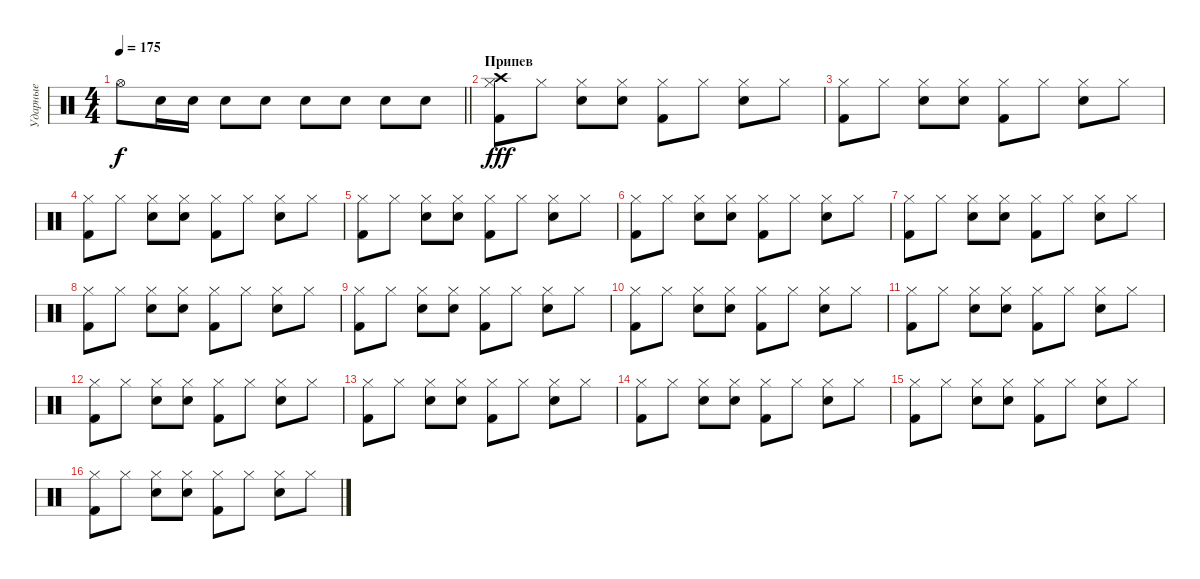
\track ("Ударные" "Ударные") {instrument percussion}
\staff {score}
\articulation defaults
\ts (4 4)
\tempo 175
\clef neutral
\barLineRight lightlight
\ks c "Hi-Hat (open)".8{dy f} "Snare (hit) 2".16 "Snare (hit) 2".16 "Snare (hit) 2".8 "Snare (hit) 2".8 "Snare (hit) 2".8 "Snare (hit) 2".8 "Snare (hit) 2".8 "Snare (hit) 2".8
|
\section ("" "Припев")
("Crash high (hit)" "Hi-Hat (closed)" "Kick (hit) 2").8{dy fff} "Hi-Hat (closed)".8 ("Hi-Hat (closed)" "Snare (hit) 2").8 ("Hi-Hat (closed)" "Snare (hit) 2").8 ("Hi-Hat (closed)" "Kick (hit) 2").8 "Hi-Hat (closed)".8 ("Hi-Hat (closed)" "Snare (hit) 2").8 "Hi-Hat (closed)".8 |
("Hi-Hat (closed)" "Kick (hit) 2").8 "Hi-Hat (closed)".8 ("Hi-Hat (closed)" "Snare (hit) 2").8 ("Hi-Hat (closed)" "Snare (hit) 2").8 ("Hi-Hat (closed)" "Kick (hit) 2").8 "Hi-Hat (closed)".8 ("Hi-Hat (closed)" "Snare (hit) 2").8 "Hi-Hat (closed)".8 |
("Hi-Hat (closed)" "Kick (hit) 2").8 "Hi-Hat (closed)".8 ("Hi-Hat (closed)" "Snare (hit) 2").8 ("Hi-Hat (closed)" "Snare (hit) 2").8 ("Hi-Hat (closed)" "Kick (hit) 2").8 "Hi-Hat (closed)".8 ("Hi-Hat (closed)" "Snare (hit) 2").8 "Hi-Hat (closed)".8 |
("Hi-Hat (closed)" "Kick (hit) 2").8 "Hi-Hat (closed)".8 ("Hi-Hat (closed)" "Snare (hit) 2").8 ("Hi-Hat (closed)" "Snare (hit) 2").8 ("Hi-Hat (closed)" "Kick (hit) 2").8 "Hi-Hat (closed)".8 ("Hi-Hat (closed)" "Snare (hit) 2").8 "Hi-Hat (closed)".8 |
("Hi-Hat (closed)" "Kick (hit) 2").8 "Hi-Hat (closed)".8 ("Hi-Hat (closed)" "Snare (hit) 2").8 ("Hi-Hat (closed)" "Snare (hit) 2").8 ("Hi-Hat (closed)" "Kick (hit) 2").8 "Hi-Hat (closed)".8 ("Hi-Hat (closed)" "Snare (hit) 2").8 "Hi-Hat (closed)".8 |
("Hi-Hat (closed)" "Kick (hit) 2").8 "Hi-Hat (closed)".8 ("Hi-Hat (closed)" "Snare (hit) 2").8 ("Hi-Hat (closed)" "Snare (hit) 2").8 ("Hi-Hat (closed)" "Kick (hit) 2").8 "Hi-Hat (closed)".8 ("Hi-Hat (closed)" "Snare (hit) 2").8 "Hi-Hat (closed)".8 |
("Hi-Hat (closed)" "Kick (hit) 2").8 "Hi-Hat (closed)".8 ("Hi-Hat (closed)" "Snare (hit) 2").8 ("Hi-Hat (closed)" "Snare (hit) 2").8 ("Hi-Hat (closed)" "Kick (hit) 2").8 "Hi-Hat (closed)".8 ("Hi-Hat (closed)" "Snare (hit) 2").8 "Hi-Hat (closed)".8 |
("Hi-Hat (closed)" "Kick (hit) 2").8 "Hi-Hat (closed)".8 ("Hi-Hat (closed)" "Snare (hit) 2").8 ("Hi-Hat (closed)" "Snare (hit) 2").8 ("Hi-Hat (closed)" "Kick (hit) 2").8 "Hi-Hat (closed)".8 ("Hi-Hat (closed)" "Snare (hit) 2").8 "Hi-Hat (closed)".8 |
("Hi-Hat (closed)" "Kick (hit) 2").8 "Hi-Hat (closed)".8 ("Hi-Hat (closed)" "Snare (hit) 2").8 ("Hi-Hat (closed)" "Snare (hit) 2").8 ("Hi-Hat (closed)" "Kick (hit) 2").8 "Hi-Hat (closed)".8 ("Hi-Hat (closed)" "Snare (hit) 2").8 "Hi-Hat (closed)".8 |
("Hi-Hat (closed)" "Kick (hit) 2").8 "Hi-Hat (closed)".8 ("Hi-Hat (closed)" "Snare (hit) 2").8 ("Hi-Hat (closed)" "Snare (hit) 2").8 ("Hi-Hat (closed)" "Kick (hit) 2").8 "Hi-Hat (closed)".8 ("Hi-Hat (closed)" "Snare (hit) 2").8 "Hi-Hat (closed)".8 |
("Hi-Hat (closed)" "Kick (hit) 2").8 "Hi-Hat (closed)".8 ("Hi-Hat (closed)" "Snare (hit) 2").8 ("Hi-Hat (closed)" "Snare (hit) 2").8 ("Hi-Hat (closed)" "Kick (hit) 2").8 "Hi-Hat (closed)".8 ("Hi-Hat (closed)" "Snare (hit) 2").8 "Hi-Hat (closed)".8 |
("Hi-Hat (closed)" "Kick (hit) 2").8 "Hi-Hat (closed)".8 ("Hi-Hat (closed)" "Snare (hit) 2").8 ("Hi-Hat (closed)" "Snare (hit) 2").8 ("Hi-Hat (closed)" "Kick (hit) 2").8 "Hi-Hat (closed)".8 ("Hi-Hat (closed)" "Snare (hit) 2").8 "Hi-Hat (closed)".8 |
("Hi-Hat (closed)" "Kick (hit) 2").8 "Hi-Hat (closed)".8 ("Hi-Hat (closed)" "Snare (hit) 2").8 ("Hi-Hat (closed)" "Snare (hit) 2").8 ("Hi-Hat (closed)" "Kick (hit) 2").8 "Hi-Hat (closed)".8 ("Hi-Hat (closed)" "Snare (hit) 2").8 "Hi-Hat (closed)".8 |
("Hi-Hat (closed)" "Kick (hit) 2").8 "Hi-Hat (closed)".8 ("Hi-Hat (closed)" "Snare (hit) 2").8 ("Hi-Hat (closed)" "Snare (hit) 2").8 ("Hi-Hat (closed)" "Kick (hit) 2").8 "Hi-Hat (closed)".8 ("Hi-Hat (closed)" "Snare (hit) 2").8 "Hi-Hat (closed)".8 |
("Hi-Hat (closed)" "Kick (hit) 2").8 "Hi-Hat (closed)".8 ("Hi-Hat (closed)" "Snare (hit) 2").8 ("Hi-Hat (closed)" "Snare (hit) 2").8 ("Hi-Hat (closed)" "Kick (hit) 2").8 "Hi-Hat (closed)".8 ("Hi-Hat (closed)" "Snare (hit) 2").8 "Hi-Hat (closed)".8
